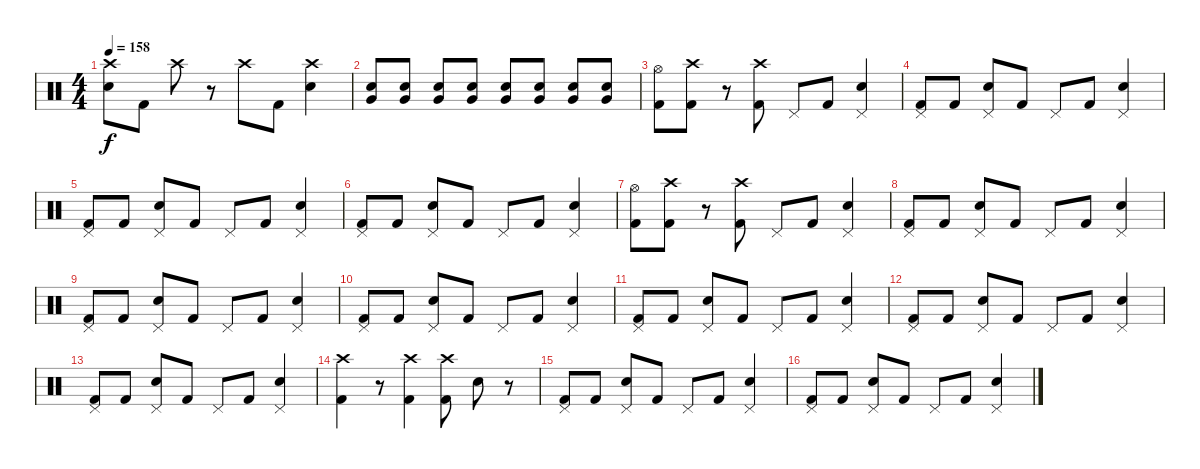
\track "" {instrument percussion}
\staff {score}
\articulation defaults
\ts (4 4)
\tempo 158
\clef neutral
\ks c
("Crash high (hit)" "Electric Snare (hit)").8{dy f} "Kick (hit) 2".8 "Crash high (hit)".8 r.8 "Crash high (hit)".8 "Kick (hit) 2".8 ("Crash high (hit)" "Electric Snare (hit)").4 |
("Electric Snare (hit)" "Very Low Tom (hit)").8 ("Electric Snare (hit)" "Very Low Tom (hit)").8 ("Electric Snare (hit)" "Very Low Tom (hit)").8 ("Electric Snare (hit)" "Very Low Tom (hit)").8 ("Electric Snare (hit)" "Very Low Tom (hit)").8 ("Electric Snare (hit)" "Very Low Tom (hit)").8 ("Electric Snare (hit)" "Very Low Tom (hit)").8 ("Electric Snare (hit)" "Very Low Tom (hit)").8 |
("Hi-Hat (open)" "Kick (hit) 2").8 ("Crash high (hit)" "Kick (hit) 2").8 r.8 ("Crash high (hit)" "Kick (hit) 2").8 "Pedal Hi-Hat (hit)".8 "Kick (hit) 2".8 ("Pedal Hi-Hat (hit)" "Electric Snare (hit)").4 |
("Pedal Hi-Hat (hit)" "Kick (hit) 2").8 "Kick (hit) 2".8 ("Pedal Hi-Hat (hit)" "Electric Snare (hit)").8 "Kick (hit) 2".8 "Pedal Hi-Hat (hit)".8 "Kick (hit) 2".8 ("Pedal Hi-Hat (hit)" "Electric Snare (hit)").4 |
("Pedal Hi-Hat (hit)" "Kick (hit) 2").8 "Kick (hit) 2".8 ("Pedal Hi-Hat (hit)" "Electric Snare (hit)").8 "Kick (hit) 2".8 "Pedal Hi-Hat (hit)".8 "Kick (hit) 2".8 ("Pedal Hi-Hat (hit)" "Electric Snare (hit)").4 |
("Pedal Hi-Hat (hit)" "Kick (hit) 2").8 "Kick (hit) 2".8 ("Pedal Hi-Hat (hit)" "Electric Snare (hit)").8 "Kick (hit) 2".8 "Pedal Hi-Hat (hit)".8 "Kick (hit) 2".8 ("Pedal Hi-Hat (hit)" "Electric Snare (hit)").4 |
("Hi-Hat (open)" "Kick (hit) 2").8 ("Crash high (hit)" "Kick (hit) 2").8 r.8 ("Crash high (hit)" "Kick (hit) 2").8 "Pedal Hi-Hat (hit)".8 "Kick (hit) 2".8 ("Pedal Hi-Hat (hit)" "Electric Snare (hit)").4 |
("Pedal Hi-Hat (hit)" "Kick (hit) 2").8 "Kick (hit) 2".8 ("Pedal Hi-Hat (hit)" "Electric Snare (hit)").8 "Kick (hit) 2".8 "Pedal Hi-Hat (hit)".8 "Kick (hit) 2".8 ("Pedal Hi-Hat (hit)" "Electric Snare (hit)").4 |
("Pedal Hi-Hat (hit)" "Kick (hit) 2").8 "Kick (hit) 2".8 ("Pedal Hi-Hat (hit)" "Electric Snare (hit)").8 "Kick (hit) 2".8 "Pedal Hi-Hat (hit)".8 "Kick (hit) 2".8 ("Pedal Hi-Hat (hit)" "Electric Snare (hit)").4 |
("Pedal Hi-Hat (hit)" "Kick (hit) 2").8 "Kick (hit) 2".8 ("Pedal Hi-Hat (hit)" "Electric Snare (hit)").8 "Kick (hit) 2".8 "Pedal Hi-Hat (hit)".8 "Kick (hit) 2".8 ("Pedal Hi-Hat (hit)" "Electric Snare (hit)").4 |
("Pedal Hi-Hat (hit)" "Kick (hit) 2").8 "Kick (hit) 2".8 ("Pedal Hi-Hat (hit)" "Electric Snare (hit)").8 "Kick (hit) 2".8 "Pedal Hi-Hat (hit)".8 "Kick (hit) 2".8 ("Pedal Hi-Hat (hit)" "Electric Snare (hit)").4 |
("Pedal Hi-Hat (hit)" "Kick (hit) 2").8 "Kick (hit) 2".8 ("Pedal Hi-Hat (hit)" "Electric Snare (hit)").8 "Kick (hit) 2".8 "Pedal Hi-Hat (hit)".8 "Kick (hit) 2".8 ("Pedal Hi-Hat (hit)" "Electric Snare (hit)").4 |
("Pedal Hi-Hat (hit)" "Kick (hit) 2").8 "Kick (hit) 2".8 ("Pedal Hi-Hat (hit)" "Electric Snare (hit)").8 "Kick (hit) 2".8 "Pedal Hi-Hat (hit)".8 "Kick (hit) 2".8 ("Pedal Hi-Hat (hit)" "Electric Snare (hit)").4 |
("Crash high (hit)" "Kick (hit) 2").4 r.8 ("Crash high (hit)" "Kick (hit) 2").4 ("Crash high (hit)" "Kick (hit) 2").8 "Electric Snare (hit)".8 r.8 |
("Pedal Hi-Hat (hit)" "Kick (hit) 2").8 "Kick (hit) 2".8 ("Pedal Hi-Hat (hit)" "Electric Snare (hit)").8 "Kick (hit) 2".8 "Pedal Hi-Hat (hit)".8 "Kick (hit) 2".8 ("Pedal Hi-Hat (hit)" "Electric Snare (hit)").4 |
("Pedal Hi-Hat (hit)" "Kick (hit) 2").8 "Kick (hit) 2".8 ("Pedal Hi-Hat (hit)" "Electric Snare (hit)").8 "Kick (hit) 2".8 "Pedal Hi-Hat (hit)".8 "Kick (hit) 2".8 ("Pedal Hi-Hat (hit)" "Electric Snare (hit)").4
